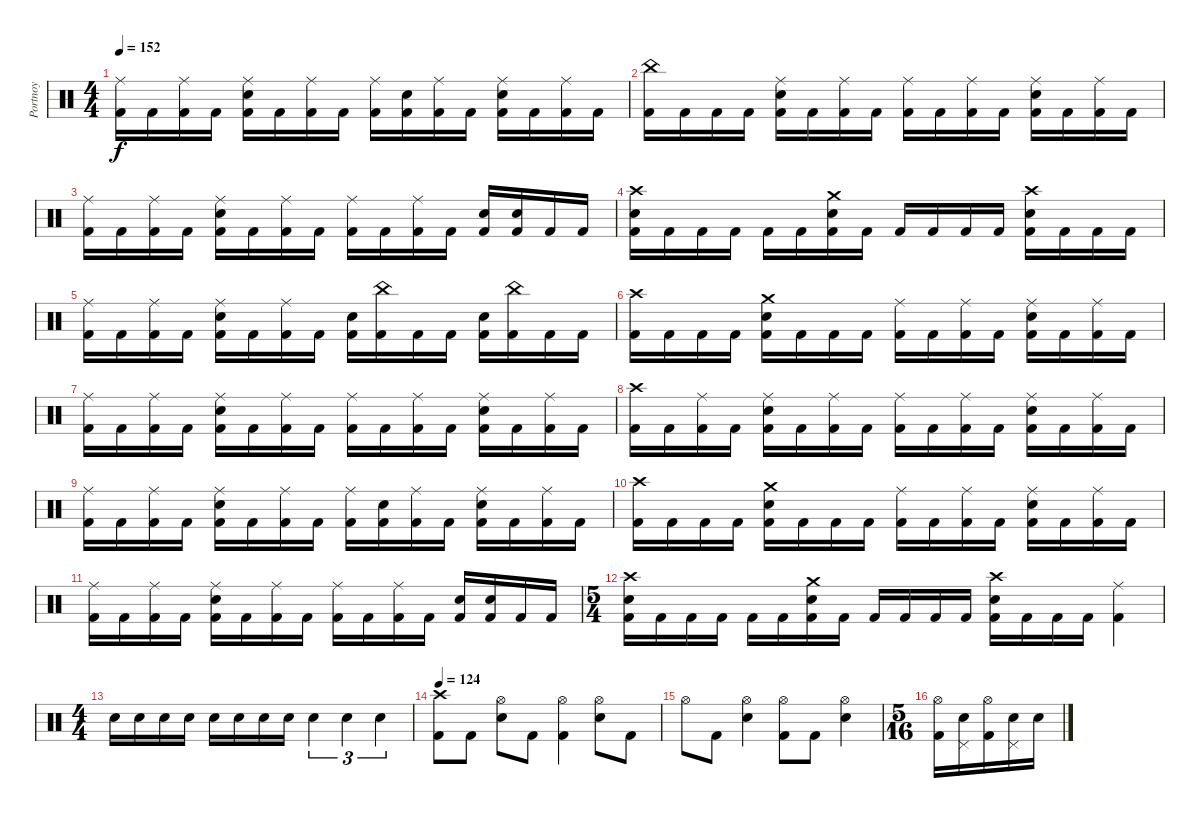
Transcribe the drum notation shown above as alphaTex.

\track ("Portnoy" "Portnoy") {instrument percussion}
\staff {score}
\articulation defaults
\ts (4 4)
\tempo 152
\clef neutral
\ks c
("Ride (middle)" "Kick (hit) 2").16{dy f} "Kick (hit) 2".16 ("Ride (middle)" "Kick (hit) 2").16 "Kick (hit) 2".16 ("Ride (middle)" "Electric Snare (hit)" "Kick (hit) 2").16 "Kick (hit) 2".16 ("Ride (middle)" "Kick (hit) 2").16 "Kick (hit) 2".16 ("Ride (middle)" "Kick (hit) 2").16 ("Electric Snare (hit)" "Kick (hit) 2").16 ("Ride (middle)" "Kick (hit) 2").16 "Kick (hit) 2".16 ("Ride (middle)" "Electric Snare (hit)" "Kick (hit) 2").16 "Kick (hit) 2".16 ("Ride (middle)" "Kick (hit) 2").16 "Kick (hit) 2".16 |
("China (hit)" "Kick (hit) 2").16 "Kick (hit) 2".16 "Kick (hit) 2".16 "Kick (hit) 2".16 ("Ride (middle)" "Electric Snare (hit)" "Kick (hit) 2").16 "Kick (hit) 2".16 ("Ride (middle)" "Kick (hit) 2").16 "Kick (hit) 2".16 ("Ride (middle)" "Kick (hit) 2").16 "Kick (hit) 2".16 ("Ride (middle)" "Kick (hit) 2").16 "Kick (hit) 2".16 ("Ride (middle)" "Electric Snare (hit)" "Kick (hit) 2").16 "Kick (hit) 2".16 ("Ride (middle)" "Kick (hit) 2").16 "Kick (hit) 2".16 |
("Ride (middle)" "Kick (hit) 2").16 "Kick (hit) 2".16 ("Ride (middle)" "Kick (hit) 2").16 "Kick (hit) 2".16 ("Ride (middle)" "Electric Snare (hit)" "Kick (hit) 2").16 "Kick (hit) 2".16 ("Ride (middle)" "Kick (hit) 2").16 "Kick (hit) 2".16 ("Ride (middle)" "Kick (hit) 2").16 "Kick (hit) 2".16 ("Ride (middle)" "Kick (hit) 2").16 "Kick (hit) 2".16 ("Electric Snare (hit)" "Kick (hit) 2").16 ("Electric Snare (hit)" "Kick (hit) 2").16 "Kick (hit) 2".16 "Kick (hit) 2".16 |
("Crash high (hit)" "Electric Snare (hit)" "Kick (hit) 2").16 "Kick (hit) 2".16 "Kick (hit) 2".16 "Kick (hit) 2".16 "Kick (hit) 2".16 "Kick (hit) 2".16 ("Crash medium (hit)" "Electric Snare (hit)" "Kick (hit) 2").16 "Kick (hit) 2".16 "Kick (hit) 2".16 "Kick (hit) 2".16 "Kick (hit) 2".16 "Kick (hit) 2".16 ("Crash high (hit)" "Electric Snare (hit)" "Kick (hit) 2").16 "Kick (hit) 2".16 "Kick (hit) 2".16 "Kick (hit) 2".16 |
("Ride (middle)" "Kick (hit) 2").16 "Kick (hit) 2".16 ("Ride (middle)" "Kick (hit) 2").16 "Kick (hit) 2".16 ("Ride (middle)" "Electric Snare (hit)" "Kick (hit) 2").16 "Kick (hit) 2".16 ("Ride (middle)" "Kick (hit) 2").16 "Kick (hit) 2".16 ("Electric Snare (hit)" "Kick (hit) 2").16 ("China (hit)" "Kick (hit) 2").16 "Kick (hit) 2".16 "Kick (hit) 2".16 ("Electric Snare (hit)" "Kick (hit) 2").16 ("China (hit)" "Kick (hit) 2").16 "Kick (hit) 2".16 "Kick (hit) 2".16 |
("Crash high (hit)" "Kick (hit) 2").16 "Kick (hit) 2".16 "Kick (hit) 2".16 "Kick (hit) 2".16 ("Crash medium (hit)" "Electric Snare (hit)" "Kick (hit) 2").16 "Kick (hit) 2".16 "Kick (hit) 2".16 "Kick (hit) 2".16 ("Ride (middle)" "Kick (hit) 2").16 "Kick (hit) 2".16 ("Ride (middle)" "Kick (hit) 2").16 "Kick (hit) 2".16 ("Ride (middle)" "Electric Snare (hit)" "Kick (hit) 2").16 "Kick (hit) 2".16 ("Ride (middle)" "Kick (hit) 2").16 "Kick (hit) 2".16 |
("Ride (middle)" "Kick (hit) 2").16 "Kick (hit) 2".16 ("Ride (middle)" "Kick (hit) 2").16 "Kick (hit) 2".16 ("Ride (middle)" "Electric Snare (hit)" "Kick (hit) 2").16 "Kick (hit) 2".16 ("Ride (middle)" "Kick (hit) 2").16 "Kick (hit) 2".16 ("Ride (middle)" "Kick (hit) 2").16 "Kick (hit) 2".16 ("Ride (middle)" "Kick (hit) 2").16 "Kick (hit) 2".16 ("Ride (middle)" "Electric Snare (hit)" "Kick (hit) 2").16 "Kick (hit) 2".16 ("Ride (middle)" "Kick (hit) 2").16 "Kick (hit) 2".16 |
("Crash high (hit)" "Kick (hit) 2").16 "Kick (hit) 2".16 ("Ride (middle)" "Kick (hit) 2").16 "Kick (hit) 2".16 ("Ride (middle)" "Electric Snare (hit)" "Kick (hit) 2").16 "Kick (hit) 2".16 ("Ride (middle)" "Kick (hit) 2").16 "Kick (hit) 2".16 ("Ride (middle)" "Kick (hit) 2").16 "Kick (hit) 2".16 ("Ride (middle)" "Kick (hit) 2").16 "Kick (hit) 2".16 ("Ride (middle)" "Electric Snare (hit)" "Kick (hit) 2").16 "Kick (hit) 2".16 ("Ride (middle)" "Kick (hit) 2").16 "Kick (hit) 2".16 |
("Ride (middle)" "Kick (hit) 2").16 "Kick (hit) 2".16 ("Ride (middle)" "Kick (hit) 2").16 "Kick (hit) 2".16 ("Ride (middle)" "Electric Snare (hit)" "Kick (hit) 2").16 "Kick (hit) 2".16 ("Ride (middle)" "Kick (hit) 2").16 "Kick (hit) 2".16 ("Ride (middle)" "Kick (hit) 2").16 ("Electric Snare (hit)" "Kick (hit) 2").16 ("Ride (middle)" "Kick (hit) 2").16 "Kick (hit) 2".16 ("Ride (middle)" "Electric Snare (hit)" "Kick (hit) 2").16 "Kick (hit) 2".16 ("Ride (middle)" "Kick (hit) 2").16 "Kick (hit) 2".16 |
("Crash high (hit)" "Kick (hit) 2").16 "Kick (hit) 2".16 "Kick (hit) 2".16 "Kick (hit) 2".16 ("Crash medium (hit)" "Electric Snare (hit)" "Kick (hit) 2").16 "Kick (hit) 2".16 "Kick (hit) 2".16 "Kick (hit) 2".16 ("Ride (middle)" "Kick (hit) 2").16 "Kick (hit) 2".16 ("Ride (middle)" "Kick (hit) 2").16 "Kick (hit) 2".16 ("Ride (middle)" "Electric Snare (hit)" "Kick (hit) 2").16 "Kick (hit) 2".16 ("Ride (middle)" "Kick (hit) 2").16 "Kick (hit) 2".16 |
("Ride (middle)" "Kick (hit) 2").16 "Kick (hit) 2".16 ("Ride (middle)" "Kick (hit) 2").16 "Kick (hit) 2".16 ("Ride (middle)" "Electric Snare (hit)" "Kick (hit) 2").16 "Kick (hit) 2".16 ("Ride (middle)" "Kick (hit) 2").16 "Kick (hit) 2".16 ("Ride (middle)" "Kick (hit) 2").16 "Kick (hit) 2".16 ("Ride (middle)" "Kick (hit) 2").16 "Kick (hit) 2".16 ("Electric Snare (hit)" "Kick (hit) 2").16 ("Electric Snare (hit)" "Kick (hit) 2").16 "Kick (hit) 2".16 "Kick (hit) 2".16 |
\ts (5 4)
("Crash high (hit)" "Electric Snare (hit)" "Kick (hit) 2").16 "Kick (hit) 2".16 "Kick (hit) 2".16 "Kick (hit) 2".16 "Kick (hit) 2".16 "Kick (hit) 2".16 ("Crash medium (hit)" "Electric Snare (hit)" "Kick (hit) 2").16 "Kick (hit) 2".16 "Kick (hit) 2".16 "Kick (hit) 2".16 "Kick (hit) 2".16 "Kick (hit) 2".16 ("Crash high (hit)" "Electric Snare (hit)" "Kick (hit) 2").16 "Kick (hit) 2".16 "Kick (hit) 2".16 "Kick (hit) 2".16 ("Ride (middle)" "Kick (hit) 2").4 |
\ts (4 4)
"Electric Snare (hit)".16 "Electric Snare (hit)".16 "Electric Snare (hit)".16 "Electric Snare (hit)".16 "Electric Snare (hit)".16 "Electric Snare (hit)".16 "Electric Snare (hit)".16 "Electric Snare (hit)".16 "Electric Snare (hit)".4{tu (3 2)} "Electric Snare (hit)".4{tu (3 2)} "Electric Snare (hit)".4{tu (3 2)} |
\tempo 124
("Crash high (hit)" "Kick (hit) 2").8 "Kick (hit) 2".8 ("Hi-Hat (open)" "Electric Snare (hit)").8 "Kick (hit) 2".8 ("Hi-Hat (open)" "Kick (hit) 2").4 ("Hi-Hat (open)" "Electric Snare (hit)").8 "Kick (hit) 2".8 |
"Hi-Hat (open)".8 "Kick (hit) 2".8 ("Hi-Hat (open)" "Electric Snare (hit)").4 ("Hi-Hat (open)" "Kick (hit) 2").8 "Kick (hit) 2".8 ("Hi-Hat (open)" "Electric Snare (hit)").4 |
\ts (5 16)
("Hi-Hat (open)" "Kick (hit) 2").16{beam merge} ("Electric Snare (hit)" "Pedal Hi-Hat (hit)").16 ("Hi-Hat (open)" "Kick (hit) 2").16{beam merge} ("Electric Snare (hit)" "Pedal Hi-Hat (hit)").16{beam merge} "Electric Snare (hit)".16
